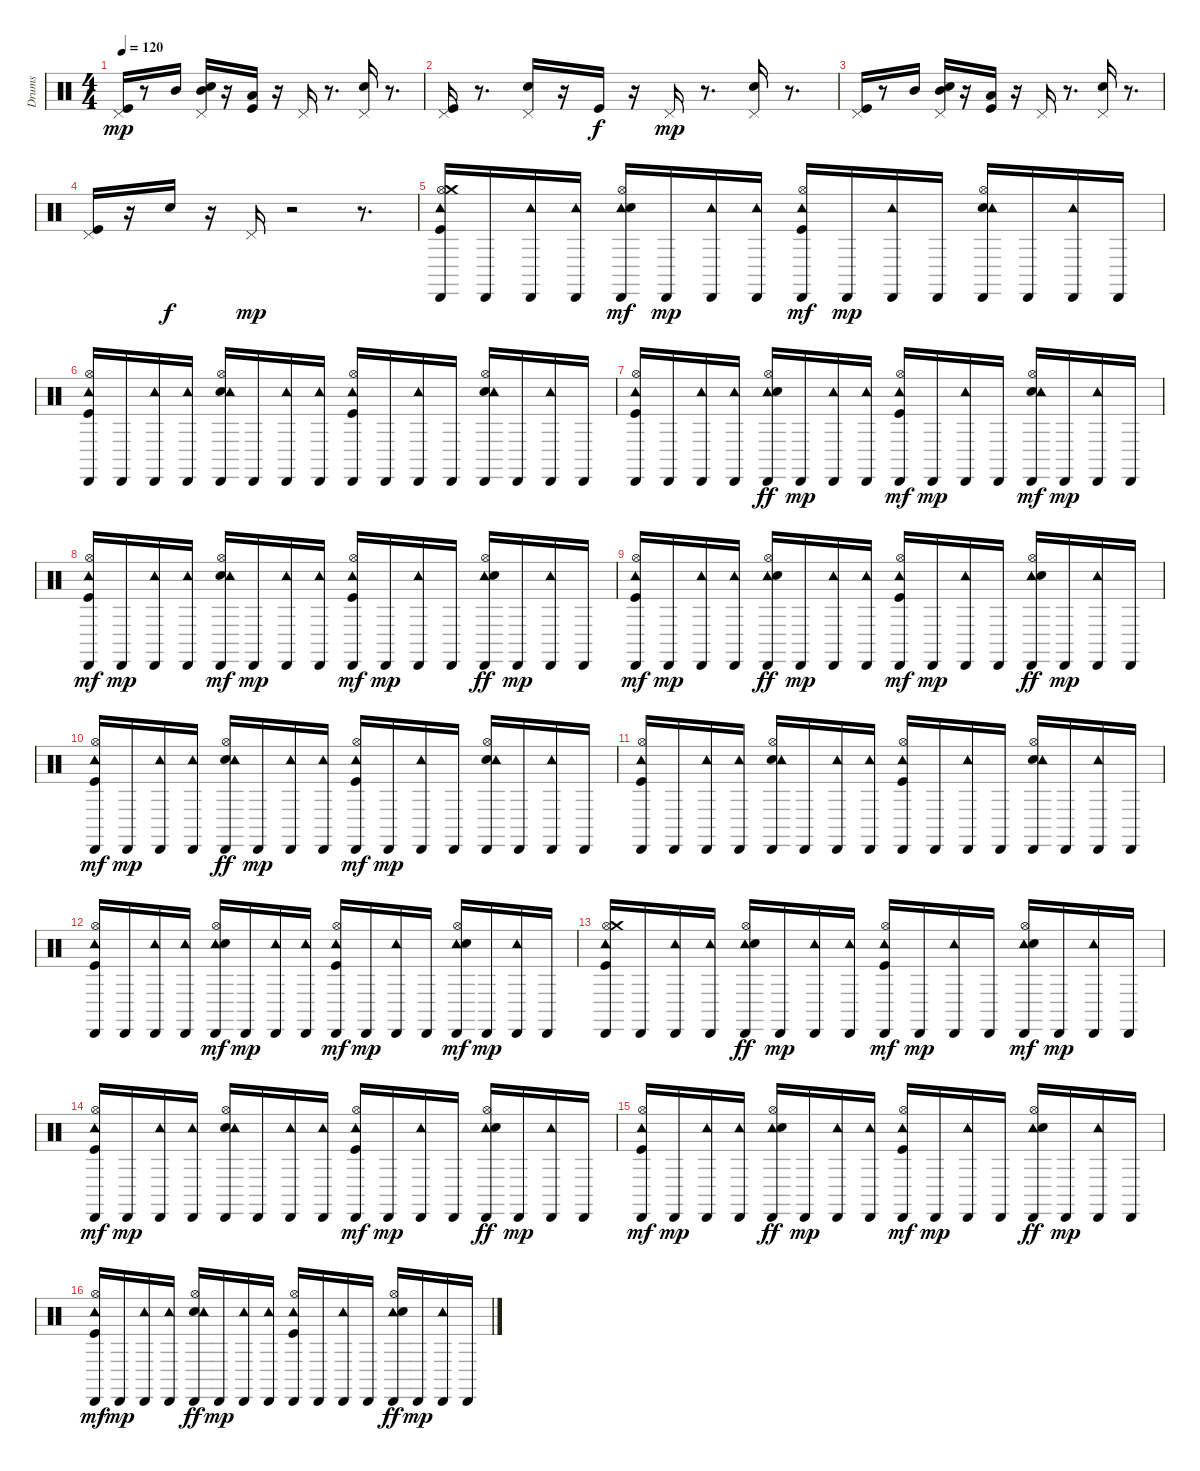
\track ("Drums" "Drums") {instrument percussion}
\staff {score}
\articulation defaults
\ts (4 4)
\tempo 120
\clef neutral
\ks c
("Pedal Hi-Hat (hit)" "Kick (hit)").16{dy mp} r.8 "Mid Tom (hit)".16 ("Mid Tom (hit)" "Pedal Hi-Hat (hit)" "Hand Clap (hit)").16 r.16 ("Kick (hit)" "Low Floor Tom (hit)").16 r.16 "Pedal Hi-Hat (hit)".16 r.8{d} ("Pedal Hi-Hat (hit)" "Hand Clap (hit)").16 r.8{d} |
("Pedal Hi-Hat (hit)" "Kick (hit)").16 r.8{d} ("Pedal Hi-Hat (hit)" "Hand Clap (hit)").16 r.16 "Kick (hit)".16{dy f} r.16 "Pedal Hi-Hat (hit)".16{dy mp} r.8{d} ("Pedal Hi-Hat (hit)" "Hand Clap (hit)").16 r.8{d} |
("Pedal Hi-Hat (hit)" "Kick (hit)").16 r.8 "Mid Tom (hit)".16 ("Mid Tom (hit)" "Pedal Hi-Hat (hit)" "Hand Clap (hit)").16 r.16 ("Kick (hit)" "Low Floor Tom (hit)").16 r.16 "Pedal Hi-Hat (hit)".16 r.8{d} ("Pedal Hi-Hat (hit)" "Hand Clap (hit)").16 r.8{d} |
("Pedal Hi-Hat (hit)" "Kick (hit)").16 r.16 "Hand Clap (hit)".16{dy f} r.16 "Pedal Hi-Hat (hit)".16{dy mp} r.2 r.8{d} |
("Hi-Hat (open)" "Crash medium (hit)" "Tambourine (hit)" "Kick (hit)" "Cabasa (hit)").16 "Cabasa (hit)".16 ("Cabasa (hit)" "Tambourine (hit)").16 ("Tambourine (hit)" "Cabasa (hit)").16 ("Cabasa (hit)" "Tambourine (hit)" "Electric Snare (hit)" "Hi-Hat (open)").16{dy mf} "Cabasa (hit)".16{dy mp} ("Tambourine (hit)" "Cabasa (hit)").16 ("Tambourine (hit)" "Cabasa (hit)").16 ("Kick (hit)" "Cabasa (hit)" "Tambourine (hit)" "Hi-Hat (open)").16{dy mf} "Cabasa (hit)".16{dy mp} ("Cabasa (hit)" "Tambourine (hit)").16 "Cabasa (hit)".16 ("Electric Snare (hit)" "Hi-Hat (open)" "Cabasa (hit)" "Tambourine (hit)").16 "Cabasa (hit)".16 ("Cabasa (hit)" "Tambourine (hit)").16 "Cabasa (hit)".16 |
("Hi-Hat (open)" "Cabasa (hit)" "Tambourine (hit)" "Kick (hit)").16 "Cabasa (hit)".16 ("Cabasa (hit)" "Tambourine (hit)").16 ("Cabasa (hit)" "Tambourine (hit)").16 ("Hi-Hat (open)" "Electric Snare (hit)" "Cabasa (hit)" "Tambourine (hit)").16 "Cabasa (hit)".16 ("Cabasa (hit)" "Tambourine (hit)").16 ("Cabasa (hit)" "Tambourine (hit)").16 ("Tambourine (hit)" "Kick (hit)" "Hi-Hat (open)" "Cabasa (hit)").16 "Cabasa (hit)".16 ("Cabasa (hit)" "Tambourine (hit)").16 "Cabasa (hit)".16 ("Hi-Hat (open)" "Electric Snare (hit)" "Cabasa (hit)" "Tambourine (hit)").16 "Cabasa (hit)".16 ("Tambourine (hit)" "Cabasa (hit)").16 "Cabasa (hit)".16 |
("Hi-Hat (open)" "Kick (hit)" "Cabasa (hit)" "Tambourine (hit)").16 "Cabasa (hit)".16 ("Tambourine (hit)" "Cabasa (hit)").16 ("Cabasa (hit)" "Tambourine (hit)").16 ("Hi-Hat (open)" "Cabasa (hit)" "Tambourine (hit)" "Electric Snare (hit)").16{dy ff} "Cabasa (hit)".16{dy mp} ("Cabasa (hit)" "Tambourine (hit)").16 ("Cabasa (hit)" "Tambourine (hit)").16 ("Cabasa (hit)" "Tambourine (hit)" "Kick (hit)" "Hi-Hat (open)").16{dy mf} "Cabasa (hit)".16{dy mp} ("Tambourine (hit)" "Cabasa (hit)").16 "Cabasa (hit)".16 ("Cabasa (hit)" "Electric Snare (hit)" "Hi-Hat (open)" "Tambourine (hit)").16{dy mf} "Cabasa (hit)".16{dy mp} ("Tambourine (hit)" "Cabasa (hit)").16 "Cabasa (hit)".16 |
("Cabasa (hit)" "Tambourine (hit)" "Hi-Hat (open)" "Kick (hit)").16{dy mf} "Cabasa (hit)".16{dy mp} ("Cabasa (hit)" "Tambourine (hit)").16 ("Tambourine (hit)" "Cabasa (hit)").16 ("Electric Snare (hit)" "Cabasa (hit)" "Tambourine (hit)" "Hi-Hat (open)").16{dy mf} "Cabasa (hit)".16{dy mp} ("Cabasa (hit)" "Tambourine (hit)").16 ("Tambourine (hit)" "Cabasa (hit)").16 ("Cabasa (hit)" "Tambourine (hit)" "Hi-Hat (open)" "Kick (hit)").16{dy mf} "Cabasa (hit)".16{dy mp} ("Cabasa (hit)" "Tambourine (hit)").16 "Cabasa (hit)".16 ("Cabasa (hit)" "Tambourine (hit)" "Hi-Hat (open)" "Electric Snare (hit)").16{dy ff} "Cabasa (hit)".16{dy mp} ("Cabasa (hit)" "Tambourine (hit)").16 "Cabasa (hit)".16 |
("Tambourine (hit)" "Kick (hit)" "Cabasa (hit)" "Hi-Hat (open)").16{dy mf} "Cabasa (hit)".16{dy mp} ("Tambourine (hit)" "Cabasa (hit)").16 ("Tambourine (hit)" "Cabasa (hit)").16 ("Tambourine (hit)" "Cabasa (hit)" "Hi-Hat (open)" "Electric Snare (hit)").16{dy ff} "Cabasa (hit)".16{dy mp} ("Cabasa (hit)" "Tambourine (hit)").16 ("Tambourine (hit)" "Cabasa (hit)").16 ("Tambourine (hit)" "Cabasa (hit)" "Hi-Hat (open)" "Kick (hit)").16{dy mf} "Cabasa (hit)".16{dy mp} ("Cabasa (hit)" "Tambourine (hit)").16 "Cabasa (hit)".16 ("Tambourine (hit)" "Cabasa (hit)" "Hi-Hat (open)" "Electric Snare (hit)").16{dy ff} "Cabasa (hit)".16{dy mp} ("Cabasa (hit)" "Tambourine (hit)").16 "Cabasa (hit)".16 |
("Cabasa (hit)" "Tambourine (hit)" "Kick (hit)" "Hi-Hat (open)").16{dy mf} "Cabasa (hit)".16{dy mp} ("Cabasa (hit)" "Tambourine (hit)").16 ("Tambourine (hit)" "Cabasa (hit)").16 ("Cabasa (hit)" "Hi-Hat (open)" "Electric Snare (hit)" "Tambourine (hit)").16{dy ff} "Cabasa (hit)".16{dy mp} ("Cabasa (hit)" "Tambourine (hit)").16 ("Tambourine (hit)" "Cabasa (hit)").16 ("Kick (hit)" "Cabasa (hit)" "Tambourine (hit)" "Hi-Hat (open)").16{dy mf} "Cabasa (hit)".16{dy mp} ("Tambourine (hit)" "Cabasa (hit)").16 "Cabasa (hit)".16 ("Hi-Hat (open)" "Electric Snare (hit)" "Tambourine (hit)" "Cabasa (hit)").16 "Cabasa (hit)".16 ("Tambourine (hit)" "Cabasa (hit)").16 "Cabasa (hit)".16 |
("Hi-Hat (open)" "Kick (hit)" "Cabasa (hit)" "Tambourine (hit)").16 "Cabasa (hit)".16 ("Tambourine (hit)" "Cabasa (hit)").16 ("Tambourine (hit)" "Cabasa (hit)").16 ("Electric Snare (hit)" "Hi-Hat (open)" "Cabasa (hit)" "Tambourine (hit)").16 "Cabasa (hit)".16 ("Cabasa (hit)" "Tambourine (hit)").16 ("Tambourine (hit)" "Cabasa (hit)").16 ("Hi-Hat (open)" "Cabasa (hit)" "Kick (hit)" "Tambourine (hit)").16 "Cabasa (hit)".16 ("Cabasa (hit)" "Tambourine (hit)").16 "Cabasa (hit)".16 ("Hi-Hat (open)" "Electric Snare (hit)" "Cabasa (hit)" "Tambourine (hit)").16 "Cabasa (hit)".16 ("Cabasa (hit)" "Tambourine (hit)").16 "Cabasa (hit)".16 |
("Hi-Hat (open)" "Cabasa (hit)" "Tambourine (hit)" "Kick (hit)").16 "Cabasa (hit)".16 ("Cabasa (hit)" "Tambourine (hit)").16 ("Cabasa (hit)" "Tambourine (hit)").16 ("Cabasa (hit)" "Tambourine (hit)" "Electric Snare (hit)" "Hi-Hat (open)").16{dy mf} "Cabasa (hit)".16{dy mp} ("Tambourine (hit)" "Cabasa (hit)").16 ("Cabasa (hit)" "Tambourine (hit)").16 ("Cabasa (hit)" "Tambourine (hit)" "Hi-Hat (open)" "Kick (hit)").16{dy mf} "Cabasa (hit)".16{dy mp} ("Cabasa (hit)" "Tambourine (hit)").16 "Cabasa (hit)".16 ("Tambourine (hit)" "Electric Snare (hit)" "Cabasa (hit)" "Hi-Hat (open)").16{dy mf} "Cabasa (hit)".16{dy mp} ("Cabasa (hit)" "Tambourine (hit)").16 "Cabasa (hit)".16 |
("Tambourine (hit)" "Cabasa (hit)" "Kick (hit)" "Hi-Hat (open)" "Crash medium (hit)").16 "Cabasa (hit)".16 ("Cabasa (hit)" "Tambourine (hit)").16 ("Tambourine (hit)" "Cabasa (hit)").16 ("Tambourine (hit)" "Cabasa (hit)" "Hi-Hat (open)" "Electric Snare (hit)").16{dy ff} "Cabasa (hit)".16{dy mp} ("Cabasa (hit)" "Tambourine (hit)").16 ("Cabasa (hit)" "Tambourine (hit)").16 ("Cabasa (hit)" "Kick (hit)" "Tambourine (hit)" "Hi-Hat (open)").16{dy mf} "Cabasa (hit)".16{dy mp} ("Tambourine (hit)" "Cabasa (hit)").16 "Cabasa (hit)".16 ("Tambourine (hit)" "Electric Snare (hit)" "Cabasa (hit)" "Hi-Hat (open)").16{dy mf} "Cabasa (hit)".16{dy mp} ("Cabasa (hit)" "Tambourine (hit)").16 "Cabasa (hit)".16 |
("Cabasa (hit)" "Hi-Hat (open)" "Tambourine (hit)" "Kick (hit)").16{dy mf} "Cabasa (hit)".16{dy mp} ("Cabasa (hit)" "Tambourine (hit)").16 ("Cabasa (hit)" "Tambourine (hit)").16 ("Electric Snare (hit)" "Hi-Hat (open)" "Cabasa (hit)" "Tambourine (hit)").16 "Cabasa (hit)".16 ("Cabasa (hit)" "Tambourine (hit)").16 ("Cabasa (hit)" "Tambourine (hit)").16 ("Cabasa (hit)" "Tambourine (hit)" "Hi-Hat (open)" "Kick (hit)").16{dy mf} "Cabasa (hit)".16{dy mp} ("Cabasa (hit)" "Tambourine (hit)").16 "Cabasa (hit)".16 ("Cabasa (hit)" "Tambourine (hit)" "Hi-Hat (open)" "Electric Snare (hit)").16{dy ff} "Cabasa (hit)".16{dy mp} ("Tambourine (hit)" "Cabasa (hit)").16 "Cabasa (hit)".16 |
("Kick (hit)" "Cabasa (hit)" "Tambourine (hit)" "Hi-Hat (open)").16{dy mf} "Cabasa (hit)".16{dy mp} ("Tambourine (hit)" "Cabasa (hit)").16 ("Cabasa (hit)" "Tambourine (hit)").16 ("Tambourine (hit)" "Cabasa (hit)" "Hi-Hat (open)" "Electric Snare (hit)").16{dy ff} "Cabasa (hit)".16{dy mp} ("Tambourine (hit)" "Cabasa (hit)").16 ("Tambourine (hit)" "Cabasa (hit)").16 ("Cabasa (hit)" "Hi-Hat (open)" "Kick (hit)" "Tambourine (hit)").16{dy mf} "Cabasa (hit)".16{dy mp} ("Cabasa (hit)" "Tambourine (hit)").16 "Cabasa (hit)".16 ("Cabasa (hit)" "Hi-Hat (open)" "Tambourine (hit)" "Electric Snare (hit)").16{dy ff} "Cabasa (hit)".16{dy mp} ("Tambourine (hit)" "Cabasa (hit)").16 "Cabasa (hit)".16 |
("Tambourine (hit)" "Cabasa (hit)" "Hi-Hat (open)" "Kick (hit)").16{dy mf} "Cabasa (hit)".16{dy mp} ("Tambourine (hit)" "Cabasa (hit)").16 ("Tambourine (hit)" "Cabasa (hit)").16 ("Cabasa (hit)" "Hi-Hat (open)" "Electric Snare (hit)" "Tambourine (hit)").16{dy ff} "Cabasa (hit)".16{dy mp} ("Tambourine (hit)" "Cabasa (hit)").16 ("Tambourine (hit)" "Cabasa (hit)").16 ("Hi-Hat (open)" "Kick (hit)" "Cabasa (hit)" "Tambourine (hit)").16 "Cabasa (hit)".16 ("Cabasa (hit)" "Tambourine (hit)").16 "Cabasa (hit)".16 ("Hi-Hat (open)" "Cabasa (hit)" "Tambourine (hit)" "Electric Snare (hit)").16{dy ff} "Cabasa (hit)".16{dy mp} ("Cabasa (hit)" "Tambourine (hit)").16 "Cabasa (hit)".16
